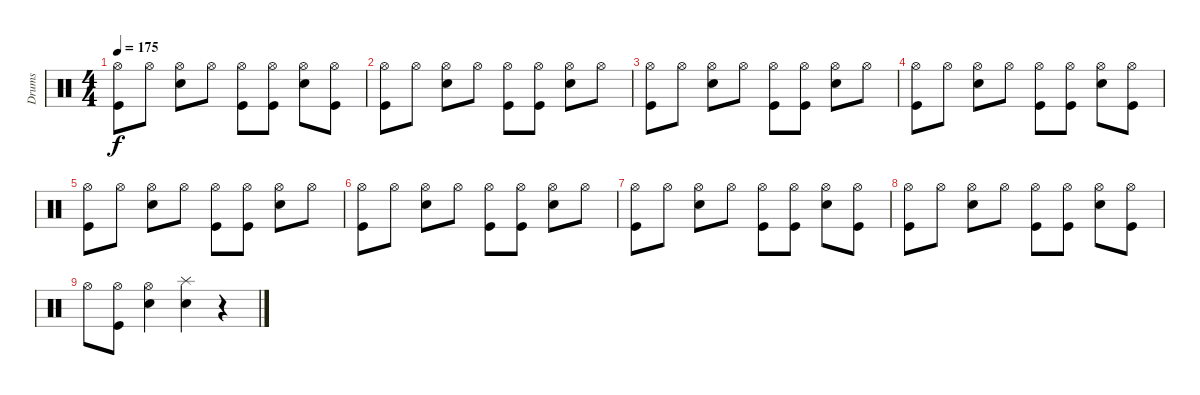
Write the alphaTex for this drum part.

\track ("Drums" "Drums") {instrument percussion}
\staff {score}
\articulation defaults
\ts (4 4)
\tempo 175
\clef neutral
\ks c
("Hi-Hat (open)" "Kick (hit)").8{dy f} "Hi-Hat (open)".8 ("Hi-Hat (open)" "Snare (hit) 2").8 "Hi-Hat (open)".8 ("Hi-Hat (open)" "Kick (hit)").8 ("Hi-Hat (open)" "Kick (hit)").8 ("Hi-Hat (open)" "Snare (hit) 2").8 ("Hi-Hat (open)" "Kick (hit)").8 |
("Hi-Hat (open)" "Kick (hit)").8 "Hi-Hat (open)".8 ("Hi-Hat (open)" "Snare (hit) 2").8 "Hi-Hat (open)".8 ("Hi-Hat (open)" "Kick (hit)").8 ("Hi-Hat (open)" "Kick (hit)").8 ("Hi-Hat (open)" "Snare (hit) 2").8 "Hi-Hat (open)".8 |
("Hi-Hat (open)" "Kick (hit)").8 "Hi-Hat (open)".8 ("Hi-Hat (open)" "Snare (hit) 2").8 "Hi-Hat (open)".8 ("Hi-Hat (open)" "Kick (hit)").8 ("Hi-Hat (open)" "Kick (hit)").8 ("Hi-Hat (open)" "Snare (hit) 2").8 "Hi-Hat (open)".8 |
("Hi-Hat (open)" "Kick (hit)").8 "Hi-Hat (open)".8 ("Hi-Hat (open)" "Snare (hit) 2").8 "Hi-Hat (open)".8 ("Hi-Hat (open)" "Kick (hit)").8 ("Hi-Hat (open)" "Kick (hit)").8 ("Hi-Hat (open)" "Snare (hit) 2").8 ("Hi-Hat (open)" "Kick (hit)").8 |
("Hi-Hat (open)" "Kick (hit)").8 "Hi-Hat (open)".8 ("Hi-Hat (open)" "Snare (hit) 2").8 "Hi-Hat (open)".8 ("Hi-Hat (open)" "Kick (hit)").8 ("Hi-Hat (open)" "Kick (hit)").8 ("Hi-Hat (open)" "Snare (hit) 2").8 "Hi-Hat (open)".8 |
("Hi-Hat (open)" "Kick (hit)").8 "Hi-Hat (open)".8 ("Hi-Hat (open)" "Snare (hit) 2").8 "Hi-Hat (open)".8 ("Hi-Hat (open)" "Kick (hit)").8 ("Hi-Hat (open)" "Kick (hit)").8 ("Hi-Hat (open)" "Snare (hit) 2").8 "Hi-Hat (open)".8 |
("Hi-Hat (open)" "Kick (hit)").8 "Hi-Hat (open)".8 ("Hi-Hat (open)" "Snare (hit) 2").8 "Hi-Hat (open)".8 ("Hi-Hat (open)" "Kick (hit)").8 ("Hi-Hat (open)" "Kick (hit)").8 ("Hi-Hat (open)" "Snare (hit) 2").8 ("Hi-Hat (open)" "Kick (hit)").8 |
("Hi-Hat (open)" "Kick (hit)").8 "Hi-Hat (open)".8 ("Hi-Hat (open)" "Snare (hit) 2").8 "Hi-Hat (open)".8 ("Hi-Hat (open)" "Kick (hit)").8 ("Hi-Hat (open)" "Kick (hit)").8 ("Hi-Hat (open)" "Snare (hit) 2").8 ("Hi-Hat (open)" "Kick (hit)").8 |
"Hi-Hat (open)".8 ("Hi-Hat (open)" "Kick (hit)").8 ("Hi-Hat (open)" "Snare (hit) 2").4 ("Splash (hit)" "Snare (hit) 2").4 r.4
